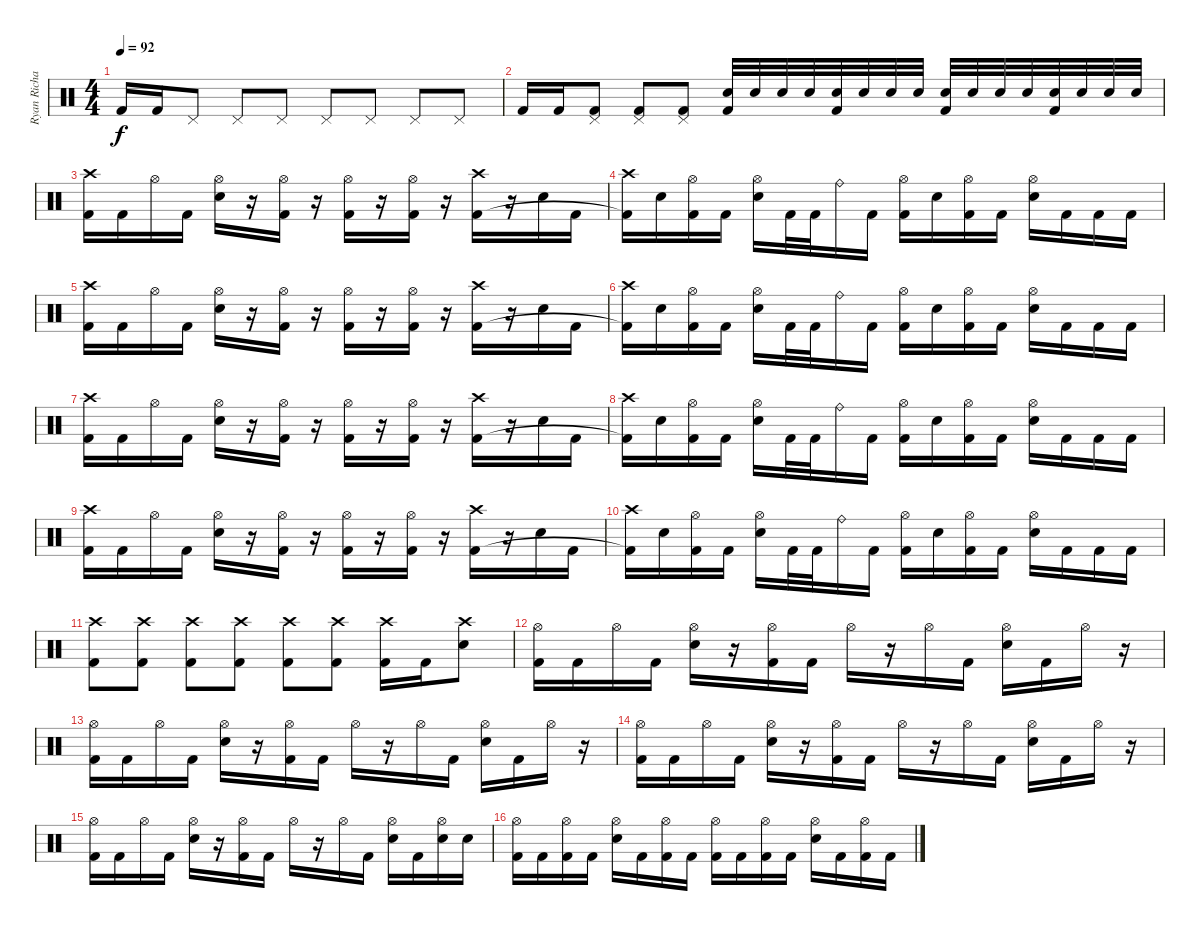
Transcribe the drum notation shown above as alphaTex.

\track ("Ryan Richards" "Ryan Richa") {instrument percussion}
\staff {score}
\articulation defaults
\ts (4 4)
\tempo 92
\clef neutral
\ks c "Kick (hit) 2".16{dy f} "Kick (hit) 2".16 "Pedal Hi-Hat (hit)".8 "Pedal Hi-Hat (hit)".8 "Pedal Hi-Hat (hit)".8 "Pedal Hi-Hat (hit)".8 "Pedal Hi-Hat (hit)".8 "Pedal Hi-Hat (hit)".8 "Pedal Hi-Hat (hit)".8
|
"Kick (hit) 2".16 "Kick (hit) 2".16 ("Pedal Hi-Hat (hit)" "Kick (hit) 2").8 ("Pedal Hi-Hat (hit)" "Kick (hit) 2").8 ("Pedal Hi-Hat (hit)" "Kick (hit) 2").8 ("Snare (hit) 2" "Kick (hit) 2").32 "Snare (hit) 2".32 "Snare (hit) 2".32 "Snare (hit) 2".32 ("Snare (hit) 2" "Kick (hit) 2").32 "Snare (hit) 2".32 "Snare (hit) 2".32 "Snare (hit) 2".32 ("Snare (hit) 2" "Kick (hit) 2").32 "Snare (hit) 2".32 "Snare (hit) 2".32 "Snare (hit) 2".32 ("Snare (hit) 2" "Kick (hit) 2").32 "Snare (hit) 2".32 "Snare (hit) 2".32 "Snare (hit) 2".32 |
("Crash high (hit)" "Kick (hit) 2").16 "Kick (hit) 2".16 "Hi-Hat (open)".16 "Kick (hit) 2".16 ("Hi-Hat (open)" "Snare (hit) 2").16 r.16 ("Hi-Hat (open)" "Kick (hit) 2").16 r.16 ("Hi-Hat (open)" "Kick (hit) 2").16 r.16 ("Hi-Hat (open)" "Kick (hit) 2").16 r.16 ("Crash high (hit)" "Kick (hit) 2").16 r.16 "Snare (hit) 2".16 "Kick (hit) 2".16 |
("Crash high (hit)" "Kick (hit) 2"{t}).16 "Snare (hit) 2".16 ("Hi-Hat (open)" "Kick (hit) 2").16 "Kick (hit) 2".16 ("Hi-Hat (open)" "Snare (hit) 2").16 "Kick (hit) 2".32 "Kick (hit) 2".32 "Ride (bell)".16 "Kick (hit) 2".16 ("Hi-Hat (open)" "Kick (hit) 2").16 "Snare (hit) 2".16 ("Hi-Hat (open)" "Kick (hit) 2").16 "Kick (hit) 2".16 ("Hi-Hat (open)" "Snare (hit) 2").16 "Kick (hit) 2".16 "Kick (hit) 2".16 "Kick (hit) 2".16 |
("Crash high (hit)" "Kick (hit) 2").16 "Kick (hit) 2".16 "Hi-Hat (open)".16 "Kick (hit) 2".16 ("Hi-Hat (open)" "Snare (hit) 2").16 r.16 ("Hi-Hat (open)" "Kick (hit) 2").16 r.16 ("Hi-Hat (open)" "Kick (hit) 2").16 r.16 ("Hi-Hat (open)" "Kick (hit) 2").16 r.16 ("Crash high (hit)" "Kick (hit) 2").16 r.16 "Snare (hit) 2".16 "Kick (hit) 2".16 |
("Crash high (hit)" "Kick (hit) 2"{t}).16 "Snare (hit) 2".16 ("Hi-Hat (open)" "Kick (hit) 2").16 "Kick (hit) 2".16 ("Hi-Hat (open)" "Snare (hit) 2").16 "Kick (hit) 2".32 "Kick (hit) 2".32 "Ride (bell)".16 "Kick (hit) 2".16 ("Hi-Hat (open)" "Kick (hit) 2").16 "Snare (hit) 2".16 ("Hi-Hat (open)" "Kick (hit) 2").16 "Kick (hit) 2".16 ("Hi-Hat (open)" "Snare (hit) 2").16 "Kick (hit) 2".16 "Kick (hit) 2".16 "Kick (hit) 2".16 |
("Crash high (hit)" "Kick (hit) 2").16 "Kick (hit) 2".16 "Hi-Hat (open)".16 "Kick (hit) 2".16 ("Hi-Hat (open)" "Snare (hit) 2").16 r.16 ("Hi-Hat (open)" "Kick (hit) 2").16 r.16 ("Hi-Hat (open)" "Kick (hit) 2").16 r.16 ("Hi-Hat (open)" "Kick (hit) 2").16 r.16 ("Crash high (hit)" "Kick (hit) 2").16 r.16 "Snare (hit) 2".16 "Kick (hit) 2".16 |
("Crash high (hit)" "Kick (hit) 2"{t}).16 "Snare (hit) 2".16 ("Hi-Hat (open)" "Kick (hit) 2").16 "Kick (hit) 2".16 ("Hi-Hat (open)" "Snare (hit) 2").16 "Kick (hit) 2".32 "Kick (hit) 2".32 "Ride (bell)".16 "Kick (hit) 2".16 ("Hi-Hat (open)" "Kick (hit) 2").16 "Snare (hit) 2".16 ("Hi-Hat (open)" "Kick (hit) 2").16 "Kick (hit) 2".16 ("Hi-Hat (open)" "Snare (hit) 2").16 "Kick (hit) 2".16 "Kick (hit) 2".16 "Kick (hit) 2".16 |
("Crash high (hit)" "Kick (hit) 2").16 "Kick (hit) 2".16 "Hi-Hat (open)".16 "Kick (hit) 2".16 ("Hi-Hat (open)" "Snare (hit) 2").16 r.16 ("Hi-Hat (open)" "Kick (hit) 2").16 r.16 ("Hi-Hat (open)" "Kick (hit) 2").16 r.16 ("Hi-Hat (open)" "Kick (hit) 2").16 r.16 ("Crash high (hit)" "Kick (hit) 2").16 r.16 "Snare (hit) 2".16 "Kick (hit) 2".16 |
("Crash high (hit)" "Kick (hit) 2"{t}).16 "Snare (hit) 2".16 ("Hi-Hat (open)" "Kick (hit) 2").16 "Kick (hit) 2".16 ("Hi-Hat (open)" "Snare (hit) 2").16 "Kick (hit) 2".32 "Kick (hit) 2".32 "Ride (bell)".16 "Kick (hit) 2".16 ("Hi-Hat (open)" "Kick (hit) 2").16 "Snare (hit) 2".16 ("Hi-Hat (open)" "Kick (hit) 2").16 "Kick (hit) 2".16 ("Hi-Hat (open)" "Snare (hit) 2").16 "Kick (hit) 2".16 "Kick (hit) 2".16 "Kick (hit) 2".16 |
("Crash high (hit)" "Kick (hit) 2").8 ("Crash high (hit)" "Kick (hit) 2").8 ("Crash high (hit)" "Kick (hit) 2").8 ("Crash high (hit)" "Kick (hit) 2").8 ("Crash high (hit)" "Kick (hit) 2").8 ("Crash high (hit)" "Kick (hit) 2").8 ("Crash high (hit)" "Kick (hit) 2").16 "Kick (hit) 2".16 ("Crash high (hit)" "Snare (hit) 2").8 |
("Hi-Hat (open)" "Kick (hit) 2").16 "Kick (hit) 2".16 "Hi-Hat (open)".16 "Kick (hit) 2".16 ("Hi-Hat (open)" "Snare (hit) 2").16 r.16 ("Hi-Hat (open)" "Kick (hit) 2").16 "Kick (hit) 2".16 "Hi-Hat (open)".16 r.16 "Hi-Hat (open)".16 "Kick (hit) 2".16 ("Hi-Hat (open)" "Snare (hit) 2").16 "Kick (hit) 2".16 "Hi-Hat (open)".16 r.16 |
("Hi-Hat (open)" "Kick (hit) 2").16 "Kick (hit) 2".16 "Hi-Hat (open)".16 "Kick (hit) 2".16 ("Hi-Hat (open)" "Snare (hit) 2").16 r.16 ("Hi-Hat (open)" "Kick (hit) 2").16 "Kick (hit) 2".16 "Hi-Hat (open)".16 r.16 "Hi-Hat (open)".16 "Kick (hit) 2".16 ("Hi-Hat (open)" "Snare (hit) 2").16 "Kick (hit) 2".16 "Hi-Hat (open)".16 r.16 |
("Hi-Hat (open)" "Kick (hit) 2").16 "Kick (hit) 2".16 "Hi-Hat (open)".16 "Kick (hit) 2".16 ("Hi-Hat (open)" "Snare (hit) 2").16 r.16 ("Hi-Hat (open)" "Kick (hit) 2").16 "Kick (hit) 2".16 "Hi-Hat (open)".16 r.16 "Hi-Hat (open)".16 "Kick (hit) 2".16 ("Hi-Hat (open)" "Snare (hit) 2").16 "Kick (hit) 2".16 "Hi-Hat (open)".16 r.16 |
("Hi-Hat (open)" "Kick (hit) 2").16 "Kick (hit) 2".16 "Hi-Hat (open)".16 "Kick (hit) 2".16 ("Hi-Hat (open)" "Snare (hit) 2").16 r.16 ("Hi-Hat (open)" "Kick (hit) 2").16 "Kick (hit) 2".16 "Hi-Hat (open)".16 r.16 "Hi-Hat (open)".16 "Kick (hit) 2".16 ("Hi-Hat (open)" "Snare (hit) 2").16 "Kick (hit) 2".16 ("Hi-Hat (open)" "Snare (hit) 2").16 "Snare (hit) 2".16 |
("Hi-Hat (open)" "Kick (hit) 2").16 "Kick (hit) 2".16 ("Hi-Hat (open)" "Kick (hit) 2").16 "Kick (hit) 2".16 ("Hi-Hat (open)" "Snare (hit) 2").16 "Kick (hit) 2".16 ("Hi-Hat (open)" "Kick (hit) 2").16 "Kick (hit) 2".16 ("Hi-Hat (open)" "Kick (hit) 2").16 "Kick (hit) 2".16 ("Hi-Hat (open)" "Kick (hit) 2").16 "Kick (hit) 2".16 ("Hi-Hat (open)" "Snare (hit) 2").16 "Kick (hit) 2".16 ("Hi-Hat (open)" "Kick (hit) 2").16 "Kick (hit) 2".16
